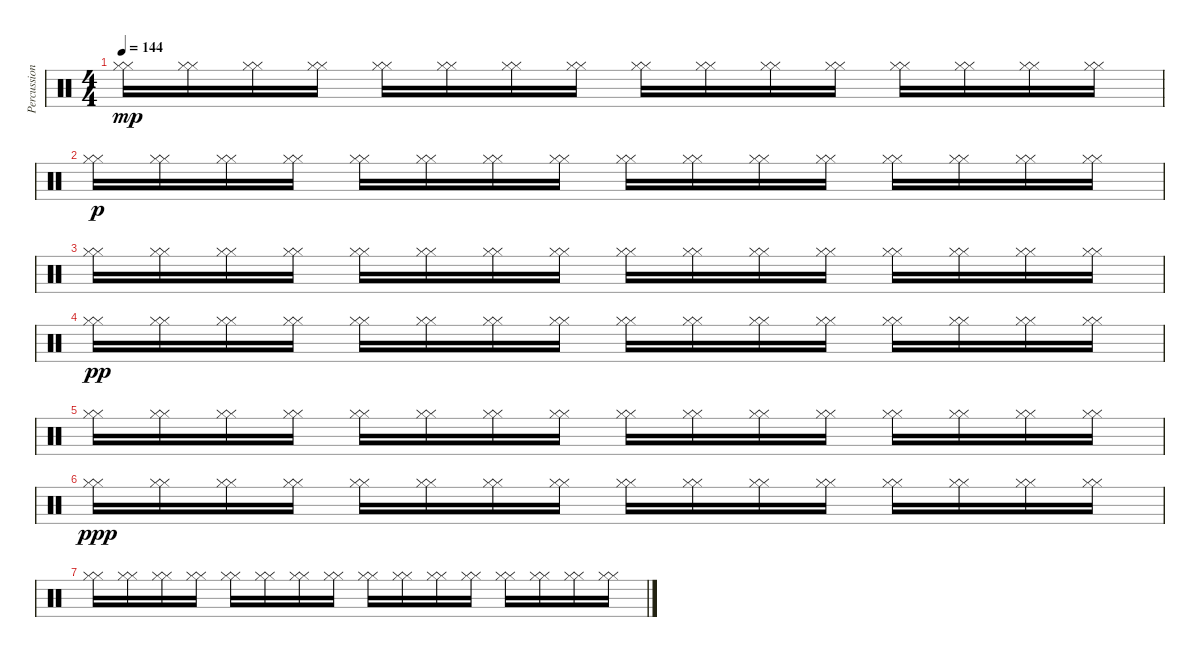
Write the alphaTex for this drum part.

\track ("Percussion 3" "Percussion") {instrument percussion}
\staff {score}
\articulation defaults
\ts (4 4)
\tempo 144
\clef neutral
\ks c
("Hi-Hat (closed)" "Hi-Hat (closed)").16{dy mp} ("Hi-Hat (closed)" "Hi-Hat (closed)").16 ("Hi-Hat (closed)" "Hi-Hat (closed)").16 ("Hi-Hat (closed)" "Hi-Hat (closed)").16 ("Hi-Hat (closed)" "Hi-Hat (closed)").16 ("Hi-Hat (closed)" "Hi-Hat (closed)").16 ("Hi-Hat (closed)" "Hi-Hat (closed)").16 ("Hi-Hat (closed)" "Hi-Hat (closed)").16 ("Hi-Hat (closed)" "Hi-Hat (closed)").16 ("Hi-Hat (closed)" "Hi-Hat (closed)").16 ("Hi-Hat (closed)" "Hi-Hat (closed)").16 ("Hi-Hat (closed)" "Hi-Hat (closed)").16 ("Hi-Hat (closed)" "Hi-Hat (closed)").16 ("Hi-Hat (closed)" "Hi-Hat (closed)").16 ("Hi-Hat (closed)" "Hi-Hat (closed)").16 ("Hi-Hat (closed)" "Hi-Hat (closed)").16 |
("Hi-Hat (closed)" "Hi-Hat (closed)").16{dy p} ("Hi-Hat (closed)" "Hi-Hat (closed)").16 ("Hi-Hat (closed)" "Hi-Hat (closed)").16 ("Hi-Hat (closed)" "Hi-Hat (closed)").16 ("Hi-Hat (closed)" "Hi-Hat (closed)").16 ("Hi-Hat (closed)" "Hi-Hat (closed)").16 ("Hi-Hat (closed)" "Hi-Hat (closed)").16 ("Hi-Hat (closed)" "Hi-Hat (closed)").16 ("Hi-Hat (closed)" "Hi-Hat (closed)").16 ("Hi-Hat (closed)" "Hi-Hat (closed)").16 ("Hi-Hat (closed)" "Hi-Hat (closed)").16 ("Hi-Hat (closed)" "Hi-Hat (closed)").16 ("Hi-Hat (closed)" "Hi-Hat (closed)").16 ("Hi-Hat (closed)" "Hi-Hat (closed)").16 ("Hi-Hat (closed)" "Hi-Hat (closed)").16 ("Hi-Hat (closed)" "Hi-Hat (closed)").16 |
("Hi-Hat (closed)" "Hi-Hat (closed)").16 ("Hi-Hat (closed)" "Hi-Hat (closed)").16 ("Hi-Hat (closed)" "Hi-Hat (closed)").16 ("Hi-Hat (closed)" "Hi-Hat (closed)").16 ("Hi-Hat (closed)" "Hi-Hat (closed)").16 ("Hi-Hat (closed)" "Hi-Hat (closed)").16 ("Hi-Hat (closed)" "Hi-Hat (closed)").16 ("Hi-Hat (closed)" "Hi-Hat (closed)").16 ("Hi-Hat (closed)" "Hi-Hat (closed)").16 ("Hi-Hat (closed)" "Hi-Hat (closed)").16 ("Hi-Hat (closed)" "Hi-Hat (closed)").16 ("Hi-Hat (closed)" "Hi-Hat (closed)").16 ("Hi-Hat (closed)" "Hi-Hat (closed)").16 ("Hi-Hat (closed)" "Hi-Hat (closed)").16 ("Hi-Hat (closed)" "Hi-Hat (closed)").16 ("Hi-Hat (closed)" "Hi-Hat (closed)").16 |
("Hi-Hat (closed)" "Hi-Hat (closed)").16{dy pp} ("Hi-Hat (closed)" "Hi-Hat (closed)").16 ("Hi-Hat (closed)" "Hi-Hat (closed)").16 ("Hi-Hat (closed)" "Hi-Hat (closed)").16 ("Hi-Hat (closed)" "Hi-Hat (closed)").16 ("Hi-Hat (closed)" "Hi-Hat (closed)").16 ("Hi-Hat (closed)" "Hi-Hat (closed)").16 ("Hi-Hat (closed)" "Hi-Hat (closed)").16 ("Hi-Hat (closed)" "Hi-Hat (closed)").16 ("Hi-Hat (closed)" "Hi-Hat (closed)").16 ("Hi-Hat (closed)" "Hi-Hat (closed)").16 ("Hi-Hat (closed)" "Hi-Hat (closed)").16 ("Hi-Hat (closed)" "Hi-Hat (closed)").16 ("Hi-Hat (closed)" "Hi-Hat (closed)").16 ("Hi-Hat (closed)" "Hi-Hat (closed)").16 ("Hi-Hat (closed)" "Hi-Hat (closed)").16 |
("Hi-Hat (closed)" "Hi-Hat (closed)").16 ("Hi-Hat (closed)" "Hi-Hat (closed)").16 ("Hi-Hat (closed)" "Hi-Hat (closed)").16 ("Hi-Hat (closed)" "Hi-Hat (closed)").16 ("Hi-Hat (closed)" "Hi-Hat (closed)").16 ("Hi-Hat (closed)" "Hi-Hat (closed)").16 ("Hi-Hat (closed)" "Hi-Hat (closed)").16 ("Hi-Hat (closed)" "Hi-Hat (closed)").16 ("Hi-Hat (closed)" "Hi-Hat (closed)").16 ("Hi-Hat (closed)" "Hi-Hat (closed)").16 ("Hi-Hat (closed)" "Hi-Hat (closed)").16 ("Hi-Hat (closed)" "Hi-Hat (closed)").16 ("Hi-Hat (closed)" "Hi-Hat (closed)").16 ("Hi-Hat (closed)" "Hi-Hat (closed)").16 ("Hi-Hat (closed)" "Hi-Hat (closed)").16 ("Hi-Hat (closed)" "Hi-Hat (closed)").16 |
("Hi-Hat (closed)" "Hi-Hat (closed)").16{dy ppp} ("Hi-Hat (closed)" "Hi-Hat (closed)").16 ("Hi-Hat (closed)" "Hi-Hat (closed)").16 ("Hi-Hat (closed)" "Hi-Hat (closed)").16 ("Hi-Hat (closed)" "Hi-Hat (closed)").16 ("Hi-Hat (closed)" "Hi-Hat (closed)").16 ("Hi-Hat (closed)" "Hi-Hat (closed)").16 ("Hi-Hat (closed)" "Hi-Hat (closed)").16 ("Hi-Hat (closed)" "Hi-Hat (closed)").16 ("Hi-Hat (closed)" "Hi-Hat (closed)").16 ("Hi-Hat (closed)" "Hi-Hat (closed)").16 ("Hi-Hat (closed)" "Hi-Hat (closed)").16 ("Hi-Hat (closed)" "Hi-Hat (closed)").16 ("Hi-Hat (closed)" "Hi-Hat (closed)").16 ("Hi-Hat (closed)" "Hi-Hat (closed)").16 ("Hi-Hat (closed)" "Hi-Hat (closed)").16 |
("Hi-Hat (closed)" "Hi-Hat (closed)").16 ("Hi-Hat (closed)" "Hi-Hat (closed)").16 ("Hi-Hat (closed)" "Hi-Hat (closed)").16 ("Hi-Hat (closed)" "Hi-Hat (closed)").16 ("Hi-Hat (closed)" "Hi-Hat (closed)").16 ("Hi-Hat (closed)" "Hi-Hat (closed)").16 ("Hi-Hat (closed)" "Hi-Hat (closed)").16 ("Hi-Hat (closed)" "Hi-Hat (closed)").16 ("Hi-Hat (closed)" "Hi-Hat (closed)").16 ("Hi-Hat (closed)" "Hi-Hat (closed)").16 ("Hi-Hat (closed)" "Hi-Hat (closed)").16 ("Hi-Hat (closed)" "Hi-Hat (closed)").16 ("Hi-Hat (closed)" "Hi-Hat (closed)").16 ("Hi-Hat (closed)" "Hi-Hat (closed)").16 ("Hi-Hat (closed)" "Hi-Hat (closed)").16 ("Hi-Hat (closed)" "Hi-Hat (closed)").16
